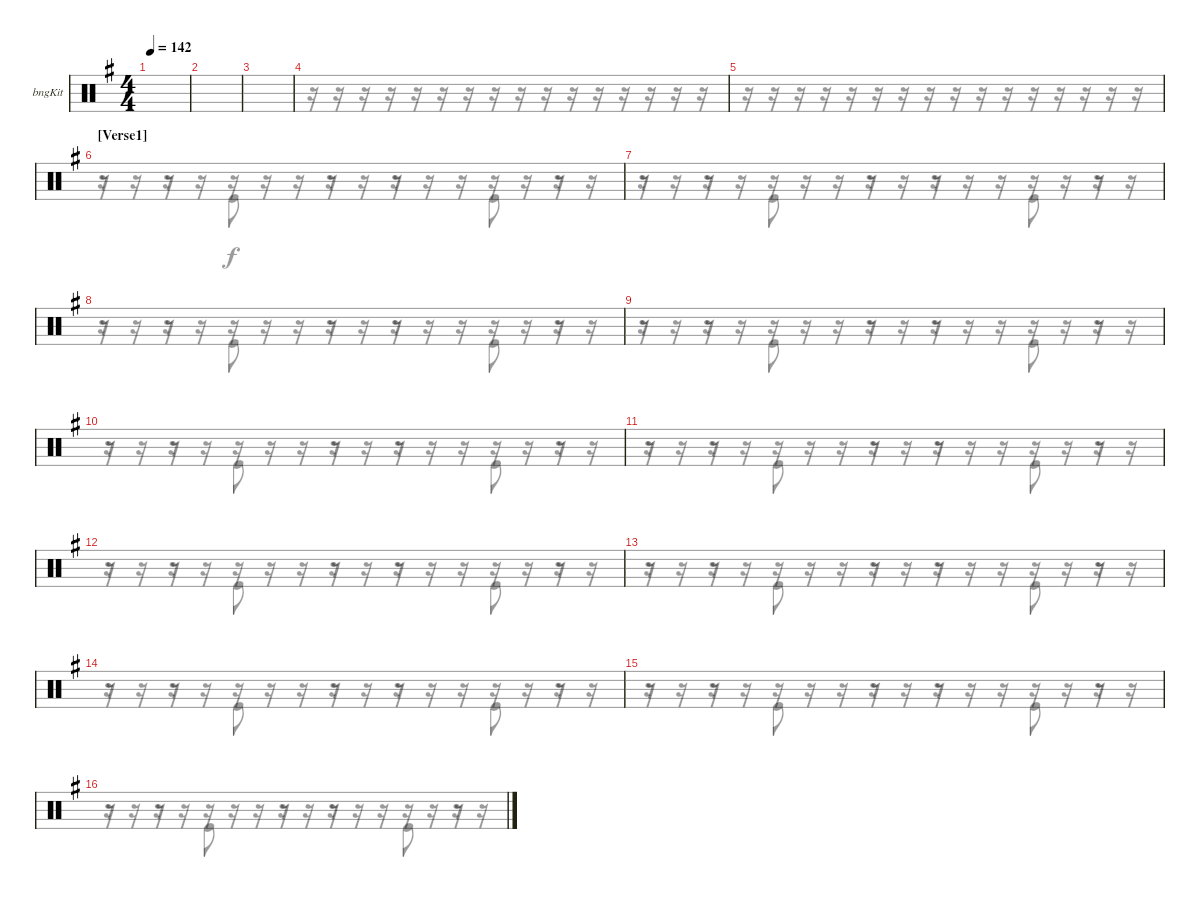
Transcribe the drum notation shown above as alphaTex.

\bracketExtendMode groupsimilarinstruments
\firstSystemTrackNameOrientation horizontal
\otherSystemsTrackNameOrientation horizontal
\track ("Bongos" "bngKit") {instrument percussion}
\staff {score}
\articulation defaults
\voice
\ts (4 4)
\tempo 142
\clef neutral
\ks eminor
|
|
|
|
|
\section ("" "[Verse1] ")
|
|
|
|
|
|
|
|
|
|
\voice
\clef neutral
\ks eminor
|
|
|
r.16 r.16 r.16 r.16 r.16 r.16 r.16 r.16 r.16 r.16 r.16 r.16 r.16 r.16 r.16 r.16 |
r.16 r.16 r.16 r.16 r.16 r.16 r.16 r.16 r.16 r.16 r.16 r.16 r.16 r.16 r.16 r.16 |
r.16 r.16 r.16 r.16 r.16 r.16 r.16 r.16 r.16 r.16 r.16 r.16 r.16 r.16 r.16 r.16 |
r.16 r.16 r.16 r.16 r.16 r.16 r.16 r.16 r.16 r.16 r.16 r.16 r.16 r.16 r.16 r.16 |
r.16 r.16 r.16 r.16 r.16 r.16 r.16 r.16 r.16 r.16 r.16 r.16 r.16 r.16 r.16 r.16 |
r.16 r.16 r.16 r.16 r.16 r.16 r.16 r.16 r.16 r.16 r.16 r.16 r.16 r.16 r.16 r.16 |
r.16 r.16 r.16 r.16 r.16 r.16 r.16 r.16 r.16 r.16 r.16 r.16 r.16 r.16 r.16 r.16 |
r.16 r.16 r.16 r.16 r.16 r.16 r.16 r.16 r.16 r.16 r.16 r.16 r.16 r.16 r.16 r.16 |
r.16 r.16 r.16 r.16 r.16 r.16 r.16 r.16 r.16 r.16 r.16 r.16 r.16 r.16 r.16 r.16 |
r.16 r.16 r.16 r.16 r.16 r.16 r.16 r.16 r.16 r.16 r.16 r.16 r.16 r.16 r.16 r.16 |
r.16 r.16 r.16 r.16 r.16 r.16 r.16 r.16 r.16 r.16 r.16 r.16 r.16 r.16 r.16 r.16 |
r.16 r.16 r.16 r.16 r.16 r.16 r.16 r.16 r.16 r.16 r.16 r.16 r.16 r.16 r.16 r.16 |
r.16 r.16 r.16 r.16 r.16 r.16 r.16 r.16 r.16 r.16 r.16 r.16 r.16 r.16 r.16 r.16
\voice
\clef neutral
\ottava regular
\simile none
\ks eminor
|
|
|
|
|
r.16 r.16 r.16 r.16 r.16 r.16 r.16 r.16 r.16 r.16 r.16 r.16 r.16 r.16 r.16 r.16 |
r.16 r.16 r.16 r.16 r.16 r.16 r.16 r.16 r.16 r.16 r.16 r.16 r.16 r.16 r.16 r.16 |
r.16 r.16 r.16 r.16 r.16 r.16 r.16 r.16 r.16 r.16 r.16 r.16 r.16 r.16 r.16 r.16 |
r.16 r.16 r.16 r.16 r.16 r.16 r.16 r.16 r.16 r.16 r.16 r.16 r.16 r.16 r.16 r.16 |
r.16 r.16 r.16 r.16 r.16 r.16 r.16 r.16 r.16 r.16 r.16 r.16 r.16 r.16 r.16 r.16 |
r.16 r.16 r.16 r.16 r.16 r.16 r.16 r.16 r.16 r.16 r.16 r.16 r.16 r.16 r.16 r.16 |
r.16 r.16 r.16 r.16 r.16 r.16 r.16 r.16 r.16 r.16 r.16 r.16 r.16 r.16 r.16 r.16 |
r.16 r.16 r.16 r.16 r.16 r.16 r.16 r.16 r.16 r.16 r.16 r.16 r.16 r.16 r.16 r.16 |
r.16 r.16 r.16 r.16 r.16 r.16 r.16 r.16 r.16 r.16 r.16 r.16 r.16 r.16 r.16 r.16 |
r.16 r.16 r.16 r.16 r.16 r.16 r.16 r.16 r.16 r.16 r.16 r.16 r.16 r.16 r.16 r.16 |
r.16 r.16 r.16 r.16 r.16 r.16 r.16 r.16 r.16 r.16 r.16 r.16 r.16 r.16 r.16 r.16
\voice
\clef neutral
\ottava regular
\simile none
\ks eminor
|
|
|
|
|
r.8 r.8 "Kick (hit)".8 r.16 r.8 r.8 r.16 "Kick (hit)".8 r.8 |
r.8 r.8 "Kick (hit)".8 r.16 r.8 r.8 r.16 "Kick (hit)".8 r.8 |
r.8 r.8 "Kick (hit)".8 r.16 r.8 r.8 r.16 "Kick (hit)".8 r.8 |
r.8 r.8 "Kick (hit)".8 r.16 r.8 r.8 r.16 "Kick (hit)".8 r.8 |
r.8 r.8 "Kick (hit)".8 r.16 r.8 r.8 r.16 "Kick (hit)".8 r.8 |
r.8 r.8 "Kick (hit)".8 r.16 r.8 r.8 r.16 "Kick (hit)".8 r.8 |
r.8 r.8 "Kick (hit)".8 r.16 r.8 r.8 r.16 "Kick (hit)".8 r.8 |
r.8 r.8 "Kick (hit)".8 r.16 r.8 r.8 r.16 "Kick (hit)".8 r.8 |
r.8 r.8 "Kick (hit)".8 r.16 r.8 r.8 r.16 "Kick (hit)".8 r.8 |
r.8 r.8 "Kick (hit)".8 r.16 r.8 r.8 r.16 "Kick (hit)".8 r.8 |
r.8 r.8 "Kick (hit)".8 r.16 r.8 r.8 r.16 "Kick (hit)".8 r.8
